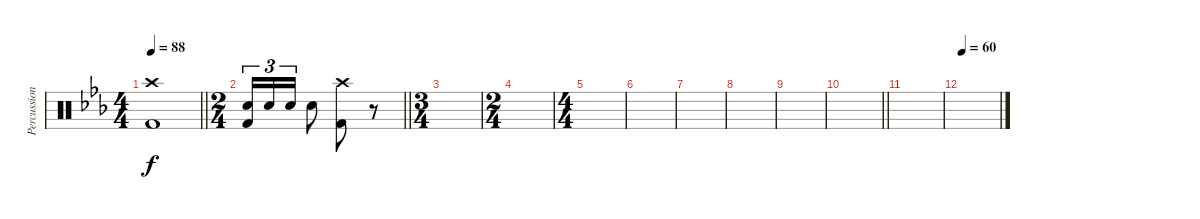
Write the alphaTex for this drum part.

\track ("Percussion" "Percussion") {instrument percussion}
\staff {score}
\articulation defaults
\ts (4 4)
\tempo 88
\clef neutral
\barLineRight lightlight
\ks eb
("Crash high (hit)" "Kick (hit) 2").1{dy f} |
\ts (2 4)
\barLineRight lightlight
("Snare (hit) 2" "Kick (hit) 2").16{tu (3 2)} "Snare (hit) 2".16{tu (3 2)} "Snare (hit) 2".16{tu (3 2)} "Snare (hit) 2".8 ("Crash high (hit)" "Kick (hit) 2").8 r.8 |
\ts (3 4)
|
\ts (2 4)
|
\ts (4 4)
|
|
|
|
|
\barLineRight lightlight
|
|
\tempo 60
